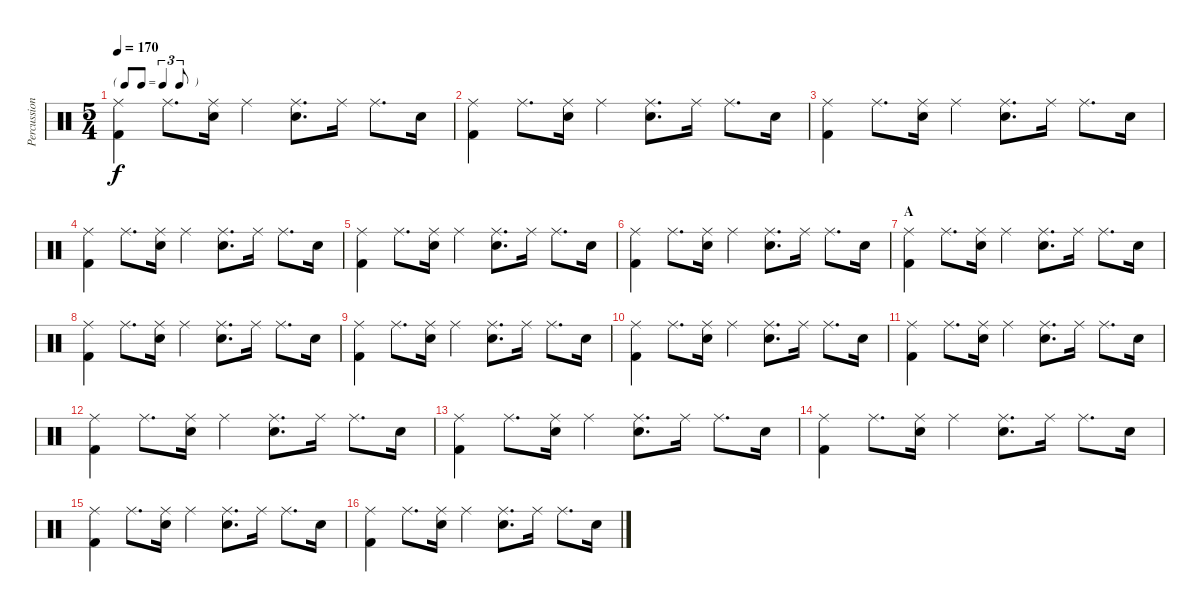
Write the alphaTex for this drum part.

\track ("Percussion" "Percussion") {instrument percussion}
\staff {score}
\articulation defaults
\ts (5 4)
\tf triplet8th
\tempo 170
\clef neutral
\ks c
("Ride (middle)" "Kick (hit) 2").4{dy f} "Ride (middle)".8{d} ("Ride (middle)" "Electric Snare (hit)").16 "Ride (middle)".4 ("Ride (middle)" "Electric Snare (hit)").8{d} "Ride (middle)".16 "Ride (middle)".8{d} "Electric Snare (hit)".16 |
("Ride (middle)" "Kick (hit) 2").4 "Ride (middle)".8{d} ("Ride (middle)" "Electric Snare (hit)").16 "Ride (middle)".4 ("Ride (middle)" "Electric Snare (hit)").8{d} "Ride (middle)".16 "Ride (middle)".8{d} "Electric Snare (hit)".16 |
("Ride (middle)" "Kick (hit) 2").4 "Ride (middle)".8{d} ("Ride (middle)" "Electric Snare (hit)").16 "Ride (middle)".4 ("Ride (middle)" "Electric Snare (hit)").8{d} "Ride (middle)".16 "Ride (middle)".8{d} "Electric Snare (hit)".16 |
("Ride (middle)" "Kick (hit) 2").4 "Ride (middle)".8{d} ("Ride (middle)" "Electric Snare (hit)").16 "Ride (middle)".4 ("Ride (middle)" "Electric Snare (hit)").8{d} "Ride (middle)".16 "Ride (middle)".8{d} "Electric Snare (hit)".16 |
("Ride (middle)" "Kick (hit) 2").4 "Ride (middle)".8{d} ("Ride (middle)" "Electric Snare (hit)").16 "Ride (middle)".4 ("Ride (middle)" "Electric Snare (hit)").8{d} "Ride (middle)".16 "Ride (middle)".8{d} "Electric Snare (hit)".16 |
("Ride (middle)" "Kick (hit) 2").4 "Ride (middle)".8{d} ("Ride (middle)" "Electric Snare (hit)").16 "Ride (middle)".4 ("Ride (middle)" "Electric Snare (hit)").8{d} "Ride (middle)".16 "Ride (middle)".8{d} "Electric Snare (hit)".16 |
\section ("" "A")
("Ride (middle)" "Kick (hit) 2").4 "Ride (middle)".8{d} ("Ride (middle)" "Electric Snare (hit)").16 "Ride (middle)".4 ("Ride (middle)" "Electric Snare (hit)").8{d} "Ride (middle)".16 "Ride (middle)".8{d} "Electric Snare (hit)".16 |
("Ride (middle)" "Kick (hit) 2").4 "Ride (middle)".8{d} ("Ride (middle)" "Electric Snare (hit)").16 "Ride (middle)".4 ("Ride (middle)" "Electric Snare (hit)").8{d} "Ride (middle)".16 "Ride (middle)".8{d} "Electric Snare (hit)".16 |
("Ride (middle)" "Kick (hit) 2").4 "Ride (middle)".8{d} ("Ride (middle)" "Electric Snare (hit)").16 "Ride (middle)".4 ("Ride (middle)" "Electric Snare (hit)").8{d} "Ride (middle)".16 "Ride (middle)".8{d} "Electric Snare (hit)".16 |
("Ride (middle)" "Kick (hit) 2").4 "Ride (middle)".8{d} ("Ride (middle)" "Electric Snare (hit)").16 "Ride (middle)".4 ("Ride (middle)" "Electric Snare (hit)").8{d} "Ride (middle)".16 "Ride (middle)".8{d} "Electric Snare (hit)".16 |
("Ride (middle)" "Kick (hit) 2").4 "Ride (middle)".8{d} ("Ride (middle)" "Electric Snare (hit)").16 "Ride (middle)".4 ("Ride (middle)" "Electric Snare (hit)").8{d} "Ride (middle)".16 "Ride (middle)".8{d} "Electric Snare (hit)".16 |
("Ride (middle)" "Kick (hit) 2").4 "Ride (middle)".8{d} ("Ride (middle)" "Electric Snare (hit)").16 "Ride (middle)".4 ("Ride (middle)" "Electric Snare (hit)").8{d} "Ride (middle)".16 "Ride (middle)".8{d} "Electric Snare (hit)".16 |
("Ride (middle)" "Kick (hit) 2").4 "Ride (middle)".8{d} ("Ride (middle)" "Electric Snare (hit)").16 "Ride (middle)".4 ("Ride (middle)" "Electric Snare (hit)").8{d} "Ride (middle)".16 "Ride (middle)".8{d} "Electric Snare (hit)".16 |
("Ride (middle)" "Kick (hit) 2").4 "Ride (middle)".8{d} ("Ride (middle)" "Electric Snare (hit)").16 "Ride (middle)".4 ("Ride (middle)" "Electric Snare (hit)").8{d} "Ride (middle)".16 "Ride (middle)".8{d} "Electric Snare (hit)".16 |
("Ride (middle)" "Kick (hit) 2").4 "Ride (middle)".8{d} ("Ride (middle)" "Electric Snare (hit)").16 "Ride (middle)".4 ("Ride (middle)" "Electric Snare (hit)").8{d} "Ride (middle)".16 "Ride (middle)".8{d} "Electric Snare (hit)".16 |
("Ride (middle)" "Kick (hit) 2").4 "Ride (middle)".8{d} ("Ride (middle)" "Electric Snare (hit)").16 "Ride (middle)".4 ("Ride (middle)" "Electric Snare (hit)").8{d} "Ride (middle)".16 "Ride (middle)".8{d} "Electric Snare (hit)".16
